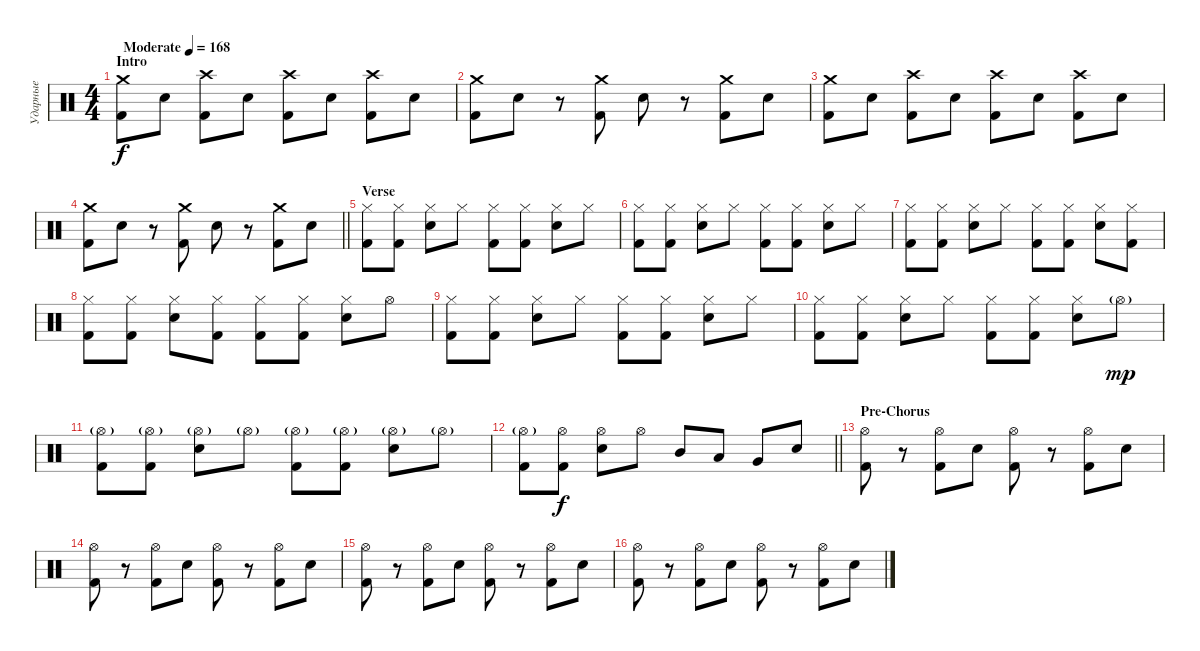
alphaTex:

\track ("Ударные" "Ударные") {instrument percussion}
\staff {score}
\articulation defaults
\ts (4 4)
\section ("" "Intro")
\tempo (168 "Moderate")
\clef neutral
\ks c
("Crash medium (hit)" "Kick (hit) 2").8{dy f} "Snare (hit) 2".8 ("Crash high (hit)" "Kick (hit) 2").8 "Snare (hit) 2".8 ("Crash high (hit)" "Kick (hit) 2").8 "Snare (hit) 2".8 ("Crash high (hit)" "Kick (hit) 2").8 "Snare (hit) 2".8 |
("Crash medium (hit)" "Kick (hit) 2").8 "Snare (hit) 2".8 r.8 ("Crash medium (hit)" "Kick (hit) 2").8 "Snare (hit) 2".8 r.8 ("Crash medium (hit)" "Kick (hit) 2").8 "Snare (hit) 2".8 |
("Crash medium (hit)" "Kick (hit) 2").8 "Snare (hit) 2".8 ("Crash high (hit)" "Kick (hit) 2").8 "Snare (hit) 2".8 ("Crash high (hit)" "Kick (hit) 2").8 "Snare (hit) 2".8 ("Crash high (hit)" "Kick (hit) 2").8 "Snare (hit) 2".8 |
\barLineRight lightlight
("Crash medium (hit)" "Kick (hit) 2").8 "Snare (hit) 2".8 r.8 ("Crash medium (hit)" "Kick (hit) 2").8 "Snare (hit) 2".8 r.8 ("Crash medium (hit)" "Kick (hit) 2").8 "Snare (hit) 2".8 |
\section ("" "Verse")
("Hi-Hat (closed)" "Kick (hit) 2").8 ("Hi-Hat (closed)" "Kick (hit) 2").8 ("Hi-Hat (closed)" "Snare (hit) 2").8 "Hi-Hat (closed)".8 ("Hi-Hat (closed)" "Kick (hit) 2").8 ("Hi-Hat (closed)" "Kick (hit) 2").8 ("Hi-Hat (closed)" "Snare (hit) 2").8 "Hi-Hat (closed)".8 |
("Hi-Hat (closed)" "Kick (hit) 2").8 ("Hi-Hat (closed)" "Kick (hit) 2").8 ("Hi-Hat (closed)" "Snare (hit) 2").8 "Hi-Hat (closed)".8 ("Hi-Hat (closed)" "Kick (hit) 2").8 ("Hi-Hat (closed)" "Kick (hit) 2").8 ("Hi-Hat (closed)" "Snare (hit) 2").8 "Hi-Hat (closed)".8 |
("Hi-Hat (closed)" "Kick (hit) 2").8 ("Hi-Hat (closed)" "Kick (hit) 2").8 ("Hi-Hat (closed)" "Snare (hit) 2").8 "Hi-Hat (closed)".8 ("Hi-Hat (closed)" "Kick (hit) 2").8 ("Hi-Hat (closed)" "Kick (hit) 2").8 ("Hi-Hat (closed)" "Snare (hit) 2").8 ("Hi-Hat (closed)" "Kick (hit) 2").8 |
("Hi-Hat (closed)" "Kick (hit) 2").8 ("Hi-Hat (closed)" "Kick (hit) 2").8 ("Hi-Hat (closed)" "Snare (hit) 2").8 ("Hi-Hat (closed)" "Kick (hit) 2").8 ("Hi-Hat (closed)" "Kick (hit) 2").8 ("Hi-Hat (closed)" "Kick (hit) 2").8 ("Hi-Hat (closed)" "Snare (hit) 2").8 "Hi-Hat (open)".8 |
("Hi-Hat (closed)" "Kick (hit) 2").8 ("Hi-Hat (closed)" "Kick (hit) 2").8 ("Hi-Hat (closed)" "Snare (hit) 2").8 "Hi-Hat (closed)".8 ("Hi-Hat (closed)" "Kick (hit) 2").8 ("Hi-Hat (closed)" "Kick (hit) 2").8 ("Hi-Hat (closed)" "Snare (hit) 2").8 "Hi-Hat (closed)".8 |
("Hi-Hat (closed)" "Kick (hit) 2").8 ("Hi-Hat (closed)" "Kick (hit) 2").8 ("Hi-Hat (closed)" "Snare (hit) 2").8 "Hi-Hat (closed)".8 ("Hi-Hat (closed)" "Kick (hit) 2").8 ("Hi-Hat (closed)" "Kick (hit) 2").8 ("Hi-Hat (closed)" "Snare (hit) 2").8 "Hi-Hat (open)"{g}.8{dy mp} |
("Hi-Hat (open)"{g} "Kick (hit) 2").8 ("Hi-Hat (open)"{g} "Kick (hit) 2").8 ("Hi-Hat (open)"{g} "Snare (hit) 2").8 "Hi-Hat (open)"{g}.8 ("Hi-Hat (open)"{g} "Kick (hit) 2").8 ("Hi-Hat (open)"{g} "Kick (hit) 2").8 ("Hi-Hat (open)"{g} "Snare (hit) 2").8 "Hi-Hat (open)"{g}.8 |
\barLineRight lightlight
("Hi-Hat (open)"{g} "Kick (hit) 2").8 ("Hi-Hat (open)" "Kick (hit) 2").8{dy f} ("Hi-Hat (open)" "Snare (hit) 2").8 "Hi-Hat (open)".8 "Mid Tom (hit)".8 "Low Tom (hit)".8 "Very Low Tom (hit)".8 "Snare (hit) 2".8 |
\section ("" "Pre-Chorus")
("Hi-Hat (open)" "Kick (hit) 2").8 r.8 ("Hi-Hat (open)" "Kick (hit) 2").8 "Snare (hit) 2".8 ("Hi-Hat (open)" "Kick (hit) 2").8 r.8 ("Hi-Hat (open)" "Kick (hit) 2").8 "Snare (hit) 2".8 |
("Hi-Hat (open)" "Kick (hit) 2").8 r.8 ("Hi-Hat (open)" "Kick (hit) 2").8 "Snare (hit) 2".8 ("Hi-Hat (open)" "Kick (hit) 2").8 r.8 ("Hi-Hat (open)" "Kick (hit) 2").8 "Snare (hit) 2".8 |
("Hi-Hat (open)" "Kick (hit) 2").8 r.8 ("Hi-Hat (open)" "Kick (hit) 2").8 "Snare (hit) 2".8 ("Hi-Hat (open)" "Kick (hit) 2").8 r.8 ("Hi-Hat (open)" "Kick (hit) 2").8 "Snare (hit) 2".8 |
("Hi-Hat (open)" "Kick (hit) 2").8 r.8 ("Hi-Hat (open)" "Kick (hit) 2").8 "Snare (hit) 2".8 ("Hi-Hat (open)" "Kick (hit) 2").8 r.8 ("Hi-Hat (open)" "Kick (hit) 2").8 "Snare (hit) 2".8
